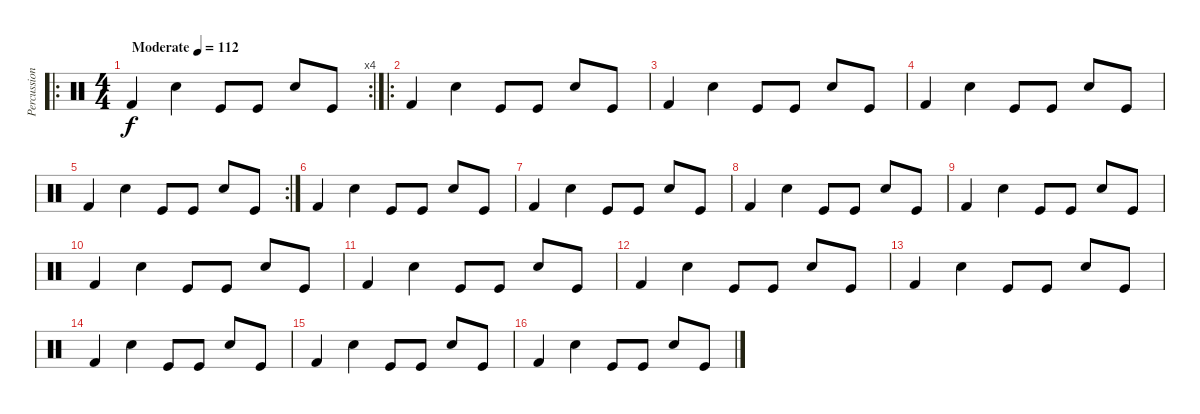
\track ("Percussions" "Percussion") {instrument percussion}
\staff {score}
\articulation defaults
\ro
\rc 4
\ts (4 4)
\tempo (112 "Moderate")
\clef neutral
\ks c "Kick (hit) 2".4{dy f} "Snare (hit) 2".4 "Kick (hit)".8 "Kick (hit)".8 "Snare (hit) 2".8 "Kick (hit)".8
|
\ro "Kick (hit) 2".4 "Snare (hit) 2".4 "Kick (hit)".8 "Kick (hit)".8 "Snare (hit) 2".8 "Kick (hit)".8
|
"Kick (hit) 2".4 "Snare (hit) 2".4 "Kick (hit)".8 "Kick (hit)".8 "Snare (hit) 2".8 "Kick (hit)".8 |
"Kick (hit) 2".4 "Snare (hit) 2".4 "Kick (hit)".8 "Kick (hit)".8 "Snare (hit) 2".8 "Kick (hit)".8 |
\rc 2 "Kick (hit) 2".4 "Snare (hit) 2".4 "Kick (hit)".8 "Kick (hit)".8 "Snare (hit) 2".8 "Kick (hit)".8
|
"Kick (hit) 2".4 "Snare (hit) 2".4 "Kick (hit)".8 "Kick (hit)".8 "Snare (hit) 2".8 "Kick (hit)".8 |
"Kick (hit) 2".4 "Snare (hit) 2".4 "Kick (hit)".8 "Kick (hit)".8 "Snare (hit) 2".8 "Kick (hit)".8 |
"Kick (hit) 2".4 "Snare (hit) 2".4 "Kick (hit)".8 "Kick (hit)".8 "Snare (hit) 2".8 "Kick (hit)".8 |
"Kick (hit) 2".4 "Snare (hit) 2".4 "Kick (hit)".8 "Kick (hit)".8 "Snare (hit) 2".8 "Kick (hit)".8 |
"Kick (hit) 2".4 "Snare (hit) 2".4 "Kick (hit)".8 "Kick (hit)".8 "Snare (hit) 2".8 "Kick (hit)".8 |
"Kick (hit) 2".4 "Snare (hit) 2".4 "Kick (hit)".8 "Kick (hit)".8 "Snare (hit) 2".8 "Kick (hit)".8 |
"Kick (hit) 2".4 "Snare (hit) 2".4 "Kick (hit)".8 "Kick (hit)".8 "Snare (hit) 2".8 "Kick (hit)".8 |
"Kick (hit) 2".4 "Snare (hit) 2".4 "Kick (hit)".8 "Kick (hit)".8 "Snare (hit) 2".8 "Kick (hit)".8 |
"Kick (hit) 2".4 "Snare (hit) 2".4 "Kick (hit)".8 "Kick (hit)".8 "Snare (hit) 2".8 "Kick (hit)".8 |
"Kick (hit) 2".4 "Snare (hit) 2".4 "Kick (hit)".8 "Kick (hit)".8 "Snare (hit) 2".8 "Kick (hit)".8 |
"Kick (hit) 2".4 "Snare (hit) 2".4 "Kick (hit)".8 "Kick (hit)".8 "Snare (hit) 2".8 "Kick (hit)".8
